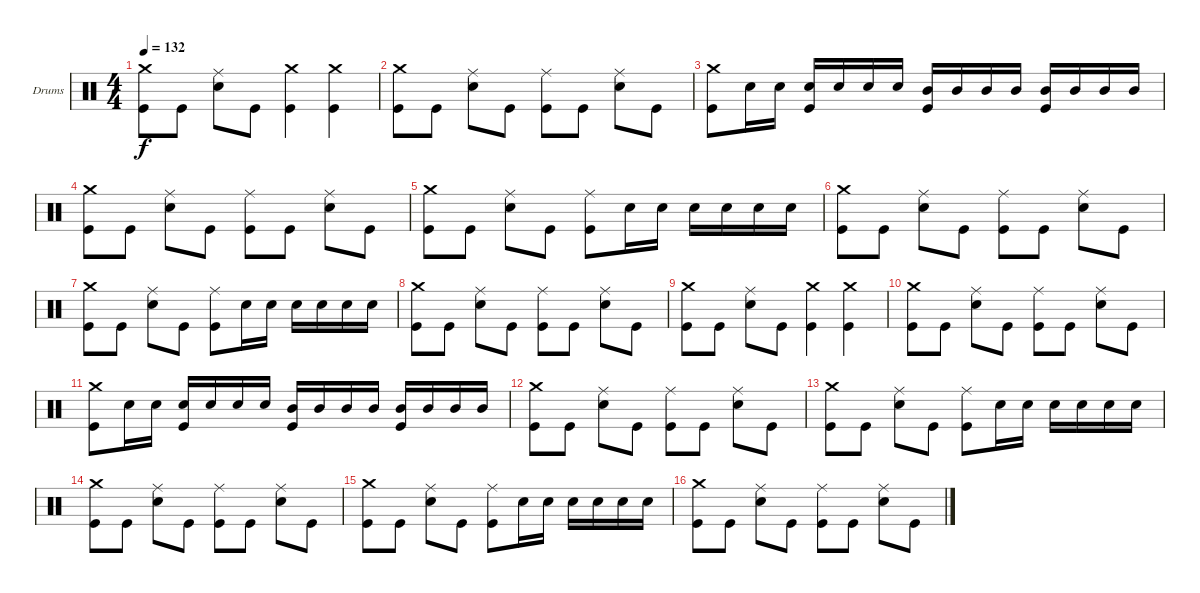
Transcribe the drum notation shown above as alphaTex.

\bracketExtendMode groupsimilarinstruments
\firstSystemTrackNameOrientation horizontal
\otherSystemsTrackNameOrientation horizontal
\track ("Drums" "Drums") {instrument percussion}
\staff {score}
\articulation defaults
\ts (4 4)
\tempo 132
\clef neutral
\ks c
("Crash medium (hit)" "Kick (hit)").8{dy f} "Kick (hit)".8 ("Ride (middle)" "Snare (hit) 2").8 "Kick (hit)".8 ("Crash medium (hit)" "Kick (hit)").4 ("Crash medium (hit)" "Kick (hit)").4 |
("Crash medium (hit)" "Kick (hit)").8 "Kick (hit)".8 ("Ride (middle)" "Snare (hit) 2").8 "Kick (hit)".8 ("Ride (middle)" "Kick (hit)").8 "Kick (hit)".8 ("Ride (middle)" "Snare (hit) 2").8 "Kick (hit)".8 |
("Crash medium (hit)" "Kick (hit)").8 "Snare (hit) 2".16 "Snare (hit) 2".16 ("Snare (hit) 2" "Kick (hit)").16 "Snare (hit) 2".16 "Snare (hit) 2".16 "Snare (hit) 2".16 ("Mid Tom (hit)" "Kick (hit)").16 "Mid Tom (hit)".16 "Mid Tom (hit)".16 "Mid Tom (hit)".16 ("Mid Tom (hit)" "Kick (hit)").16 "Mid Tom (hit)".16 "Mid Tom (hit)".16 "Mid Tom (hit)".16 |
("Crash medium (hit)" "Kick (hit)").8 "Kick (hit)".8 ("Ride (middle)" "Snare (hit) 2").8 "Kick (hit)".8 ("Ride (middle)" "Kick (hit)").8 "Kick (hit)".8 ("Ride (middle)" "Snare (hit) 2").8 "Kick (hit)".8 |
("Crash medium (hit)" "Kick (hit)").8 "Kick (hit)".8 ("Ride (middle)" "Snare (hit) 2").8 "Kick (hit)".8 ("Ride (middle)" "Kick (hit)").8 "Snare (hit) 2".16 "Snare (hit) 2".16 "Snare (hit) 2".16 "Snare (hit) 2".16 "Snare (hit) 2".16 "Snare (hit) 2".16 |
("Crash medium (hit)" "Kick (hit)").8 "Kick (hit)".8 ("Ride (middle)" "Snare (hit) 2").8 "Kick (hit)".8 ("Ride (middle)" "Kick (hit)").8 "Kick (hit)".8 ("Ride (middle)" "Snare (hit) 2").8 "Kick (hit)".8 |
("Crash medium (hit)" "Kick (hit)").8 "Kick (hit)".8 ("Ride (middle)" "Snare (hit) 2").8 "Kick (hit)".8 ("Ride (middle)" "Kick (hit)").8 "Snare (hit) 2".16 "Snare (hit) 2".16 "Snare (hit) 2".16 "Snare (hit) 2".16 "Snare (hit) 2".16 "Snare (hit) 2".16 |
("Crash medium (hit)" "Kick (hit)").8 "Kick (hit)".8 ("Ride (middle)" "Snare (hit) 2").8 "Kick (hit)".8 ("Ride (middle)" "Kick (hit)").8 "Kick (hit)".8 ("Ride (middle)" "Snare (hit) 2").8 "Kick (hit)".8 |
("Crash medium (hit)" "Kick (hit)").8 "Kick (hit)".8 ("Ride (middle)" "Snare (hit) 2").8 "Kick (hit)".8 ("Crash medium (hit)" "Kick (hit)").4 ("Crash medium (hit)" "Kick (hit)").4 |
("Crash medium (hit)" "Kick (hit)").8 "Kick (hit)".8 ("Ride (middle)" "Snare (hit) 2").8 "Kick (hit)".8 ("Ride (middle)" "Kick (hit)").8 "Kick (hit)".8 ("Ride (middle)" "Snare (hit) 2").8 "Kick (hit)".8 |
("Crash medium (hit)" "Kick (hit)").8 "Snare (hit) 2".16 "Snare (hit) 2".16 ("Snare (hit) 2" "Kick (hit)").16 "Snare (hit) 2".16 "Snare (hit) 2".16 "Snare (hit) 2".16 ("Mid Tom (hit)" "Kick (hit)").16 "Mid Tom (hit)".16 "Mid Tom (hit)".16 "Mid Tom (hit)".16 ("Mid Tom (hit)" "Kick (hit)").16 "Mid Tom (hit)".16 "Mid Tom (hit)".16 "Mid Tom (hit)".16 |
("Crash medium (hit)" "Kick (hit)").8 "Kick (hit)".8 ("Ride (middle)" "Snare (hit) 2").8 "Kick (hit)".8 ("Ride (middle)" "Kick (hit)").8 "Kick (hit)".8 ("Ride (middle)" "Snare (hit) 2").8 "Kick (hit)".8 |
("Crash medium (hit)" "Kick (hit)").8 "Kick (hit)".8 ("Ride (middle)" "Snare (hit) 2").8 "Kick (hit)".8 ("Ride (middle)" "Kick (hit)").8 "Snare (hit) 2".16 "Snare (hit) 2".16 "Snare (hit) 2".16 "Snare (hit) 2".16 "Snare (hit) 2".16 "Snare (hit) 2".16 |
("Crash medium (hit)" "Kick (hit)").8 "Kick (hit)".8 ("Ride (middle)" "Snare (hit) 2").8 "Kick (hit)".8 ("Ride (middle)" "Kick (hit)").8 "Kick (hit)".8 ("Ride (middle)" "Snare (hit) 2").8 "Kick (hit)".8 |
("Crash medium (hit)" "Kick (hit)").8 "Kick (hit)".8 ("Ride (middle)" "Snare (hit) 2").8 "Kick (hit)".8 ("Ride (middle)" "Kick (hit)").8 "Snare (hit) 2".16 "Snare (hit) 2".16 "Snare (hit) 2".16 "Snare (hit) 2".16 "Snare (hit) 2".16 "Snare (hit) 2".16 |
("Crash medium (hit)" "Kick (hit)").8 "Kick (hit)".8 ("Ride (middle)" "Snare (hit) 2").8 "Kick (hit)".8 ("Ride (middle)" "Kick (hit)").8 "Kick (hit)".8 ("Ride (middle)" "Snare (hit) 2").8 "Kick (hit)".8
